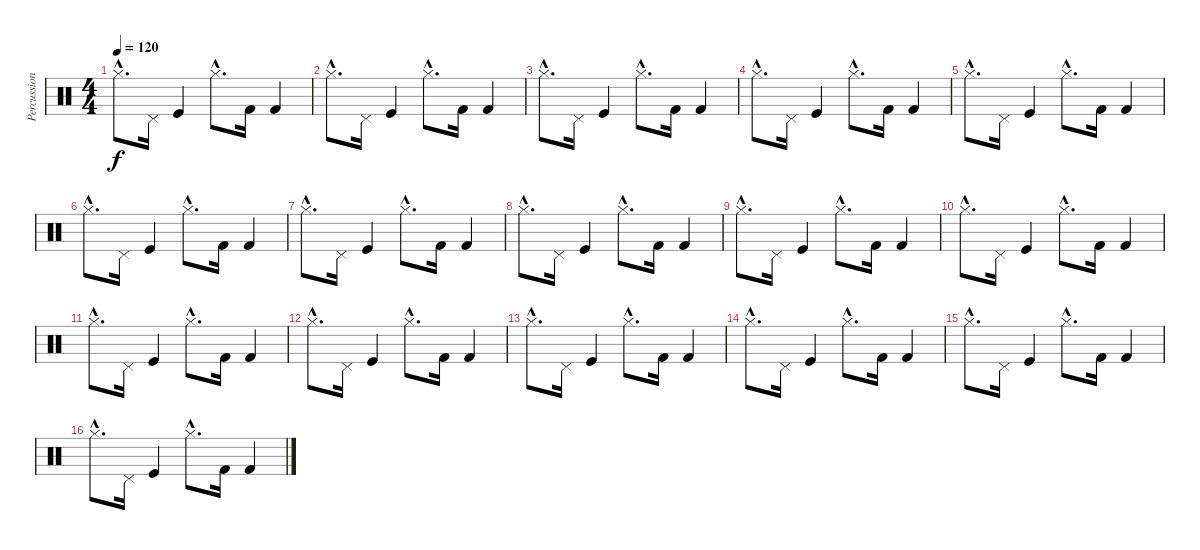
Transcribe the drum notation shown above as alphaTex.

\track ("Percussions" "Percussion") {instrument percussion}
\staff {score}
\articulation defaults
\ts (4 4)
\tempo 120
\clef neutral
\ks c "Hi-Hat (closed)"{hac}.8{d dy f} "Pedal Hi-Hat (hit)".16 "Kick (hit)".4 "Hi-Hat (closed)"{hac}.8{d} "Kick (hit) 2".16 "Kick (hit) 2".4
|
"Hi-Hat (closed)"{hac}.8{d} "Pedal Hi-Hat (hit)".16 "Kick (hit)".4 "Hi-Hat (closed)"{hac}.8{d} "Kick (hit) 2".16 "Kick (hit) 2".4 |
"Hi-Hat (closed)"{hac}.8{d} "Pedal Hi-Hat (hit)".16 "Kick (hit)".4 "Hi-Hat (closed)"{hac}.8{d} "Kick (hit) 2".16 "Kick (hit) 2".4 |
"Hi-Hat (closed)"{hac}.8{d} "Pedal Hi-Hat (hit)".16 "Kick (hit)".4 "Hi-Hat (closed)"{hac}.8{d} "Kick (hit) 2".16 "Kick (hit) 2".4 |
"Hi-Hat (closed)"{hac}.8{d} "Pedal Hi-Hat (hit)".16 "Kick (hit)".4 "Hi-Hat (closed)"{hac}.8{d} "Kick (hit) 2".16 "Kick (hit) 2".4 |
"Hi-Hat (closed)"{hac}.8{d} "Pedal Hi-Hat (hit)".16 "Kick (hit)".4 "Hi-Hat (closed)"{hac}.8{d} "Kick (hit) 2".16 "Kick (hit) 2".4 |
"Hi-Hat (closed)"{hac}.8{d} "Pedal Hi-Hat (hit)".16 "Kick (hit)".4 "Hi-Hat (closed)"{hac}.8{d} "Kick (hit) 2".16 "Kick (hit) 2".4 |
"Hi-Hat (closed)"{hac}.8{d} "Pedal Hi-Hat (hit)".16 "Kick (hit)".4 "Hi-Hat (closed)"{hac}.8{d} "Kick (hit) 2".16 "Kick (hit) 2".4 |
"Hi-Hat (closed)"{hac}.8{d} "Pedal Hi-Hat (hit)".16 "Kick (hit)".4 "Hi-Hat (closed)"{hac}.8{d} "Kick (hit) 2".16 "Kick (hit) 2".4 |
"Hi-Hat (closed)"{hac}.8{d} "Pedal Hi-Hat (hit)".16 "Kick (hit)".4 "Hi-Hat (closed)"{hac}.8{d} "Kick (hit) 2".16 "Kick (hit) 2".4 |
"Hi-Hat (closed)"{hac}.8{d} "Pedal Hi-Hat (hit)".16 "Kick (hit)".4 "Hi-Hat (closed)"{hac}.8{d} "Kick (hit) 2".16 "Kick (hit) 2".4 |
"Hi-Hat (closed)"{hac}.8{d} "Pedal Hi-Hat (hit)".16 "Kick (hit)".4 "Hi-Hat (closed)"{hac}.8{d} "Kick (hit) 2".16 "Kick (hit) 2".4 |
"Hi-Hat (closed)"{hac}.8{d} "Pedal Hi-Hat (hit)".16 "Kick (hit)".4 "Hi-Hat (closed)"{hac}.8{d} "Kick (hit) 2".16 "Kick (hit) 2".4 |
"Hi-Hat (closed)"{hac}.8{d} "Pedal Hi-Hat (hit)".16 "Kick (hit)".4 "Hi-Hat (closed)"{hac}.8{d} "Kick (hit) 2".16 "Kick (hit) 2".4 |
"Hi-Hat (closed)"{hac}.8{d} "Pedal Hi-Hat (hit)".16 "Kick (hit)".4 "Hi-Hat (closed)"{hac}.8{d} "Kick (hit) 2".16 "Kick (hit) 2".4 |
"Hi-Hat (closed)"{hac}.8{d} "Pedal Hi-Hat (hit)".16 "Kick (hit)".4 "Hi-Hat (closed)"{hac}.8{d} "Kick (hit) 2".16 "Kick (hit) 2".4
